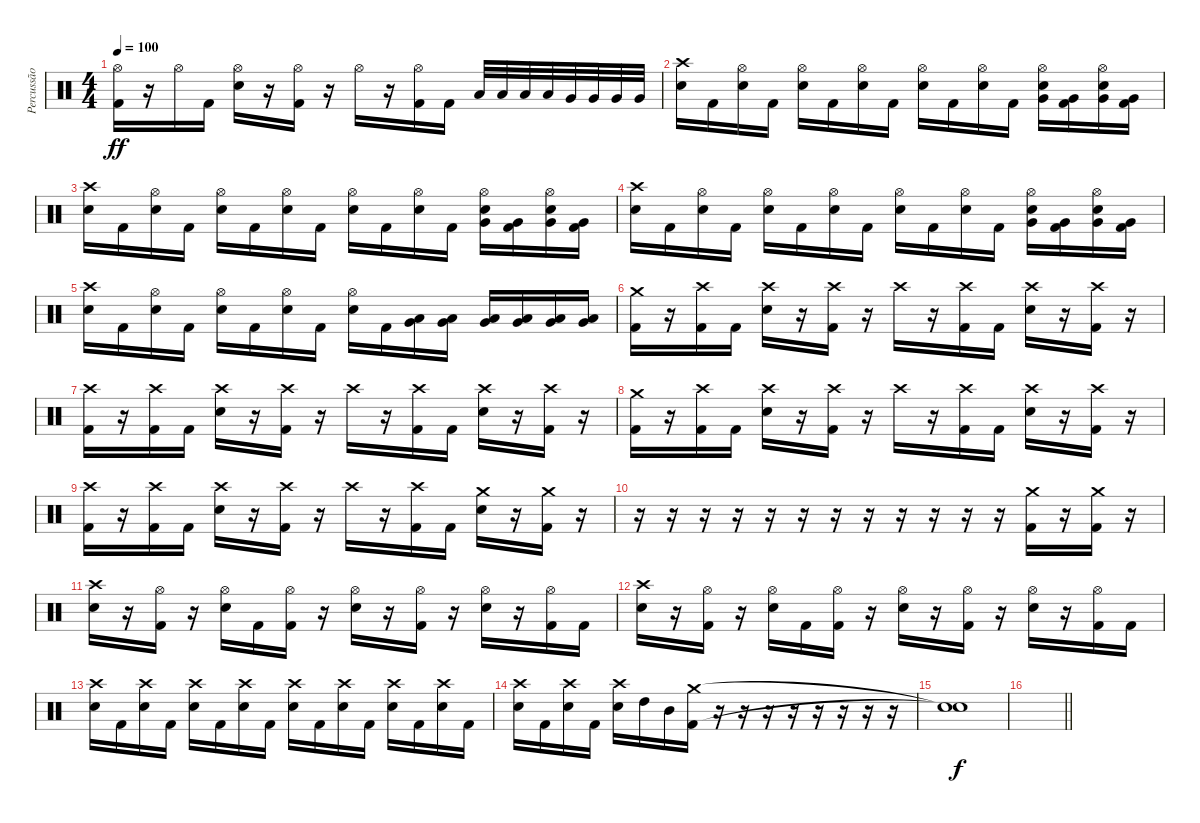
\track ("Percussão" "Percussão") {instrument percussion}
\staff {score}
\articulation defaults
\ts (4 4)
\tempo 100
\clef neutral
\ks c
("Hi-Hat (open)" "Kick (hit) 2").16{dy ff} r.16 "Hi-Hat (open)".16 "Kick (hit) 2".16 ("Hi-Hat (open)" "Electric Snare (hit)").16 r.16 ("Hi-Hat (open)" "Kick (hit) 2").16 r.16 "Hi-Hat (open)".16 r.16 ("Hi-Hat (open)" "Kick (hit) 2").16 "Kick (hit) 2".16 "Low Tom (hit)".32 "Low Tom (hit)".32 "Low Tom (hit)".32 "Low Tom (hit)".32 "Very Low Tom (hit)".32 "Very Low Tom (hit)".32 "Very Low Tom (hit)".32 "Very Low Tom (hit)".32 |
("Crash high (hit)" "Electric Snare (hit)").16 "Kick (hit) 2".16 ("Hi-Hat (open)" "Electric Snare (hit)").16 "Kick (hit) 2".16 ("Hi-Hat (open)" "Electric Snare (hit)").16 "Kick (hit) 2".16 ("Hi-Hat (open)" "Electric Snare (hit)").16 "Kick (hit) 2".16 ("Hi-Hat (open)" "Electric Snare (hit)").16 "Kick (hit) 2".16 ("Hi-Hat (open)" "Electric Snare (hit)").16 "Kick (hit) 2".16 ("Hi-Hat (open)" "Electric Snare (hit)" "Very Low Tom (hit)").16 ("Kick (hit) 2" "Very Low Tom (hit)").16 ("Hi-Hat (open)" "Electric Snare (hit)" "Very Low Tom (hit)").16 ("Kick (hit) 2" "Very Low Tom (hit)").16 |
("Crash high (hit)" "Electric Snare (hit)").16 "Kick (hit) 2".16 ("Hi-Hat (open)" "Electric Snare (hit)").16 "Kick (hit) 2".16 ("Hi-Hat (open)" "Electric Snare (hit)").16 "Kick (hit) 2".16 ("Hi-Hat (open)" "Electric Snare (hit)").16 "Kick (hit) 2".16 ("Hi-Hat (open)" "Electric Snare (hit)").16 "Kick (hit) 2".16 ("Hi-Hat (open)" "Electric Snare (hit)").16 "Kick (hit) 2".16 ("Hi-Hat (open)" "Electric Snare (hit)" "Very Low Tom (hit)").16 ("Kick (hit) 2" "Very Low Tom (hit)").16 ("Hi-Hat (open)" "Electric Snare (hit)" "Very Low Tom (hit)").16 ("Kick (hit) 2" "Very Low Tom (hit)").16 |
("Crash high (hit)" "Electric Snare (hit)").16 "Kick (hit) 2".16 ("Hi-Hat (open)" "Electric Snare (hit)").16 "Kick (hit) 2".16 ("Hi-Hat (open)" "Electric Snare (hit)").16 "Kick (hit) 2".16 ("Hi-Hat (open)" "Electric Snare (hit)").16 "Kick (hit) 2".16 ("Hi-Hat (open)" "Electric Snare (hit)").16 "Kick (hit) 2".16 ("Hi-Hat (open)" "Electric Snare (hit)").16 "Kick (hit) 2".16 ("Hi-Hat (open)" "Electric Snare (hit)" "Very Low Tom (hit)").16 ("Kick (hit) 2" "Very Low Tom (hit)").16 ("Hi-Hat (open)" "Electric Snare (hit)" "Very Low Tom (hit)").16 ("Kick (hit) 2" "Very Low Tom (hit)").16 |
("Crash high (hit)" "Electric Snare (hit)").16 "Kick (hit) 2".16 ("Hi-Hat (open)" "Electric Snare (hit)").16 "Kick (hit) 2".16 ("Hi-Hat (open)" "Electric Snare (hit)").16 "Kick (hit) 2".16 ("Hi-Hat (open)" "Electric Snare (hit)").16 "Kick (hit) 2".16 ("Hi-Hat (open)" "Electric Snare (hit)").16 "Kick (hit) 2".16 ("Very Low Tom (hit)" "Low Tom (hit)").16 ("Very Low Tom (hit)" "Low Tom (hit)").16 ("Low Tom (hit)" "Very Low Tom (hit)").16 ("Low Tom (hit)" "Very Low Tom (hit)").16 ("Low Tom (hit)" "Very Low Tom (hit)").16 ("Low Tom (hit)" "Very Low Tom (hit)").16 |
("Crash medium (hit)" "Kick (hit) 2").16 r.16 ("Crash high (hit)" "Kick (hit) 2").16 "Kick (hit) 2".16 ("Crash high (hit)" "Electric Snare (hit)").16 r.16 ("Crash high (hit)" "Kick (hit) 2").16 r.16 "Crash high (hit)".16 r.16 ("Crash high (hit)" "Kick (hit) 2").16 "Kick (hit) 2".16 ("Crash high (hit)" "Electric Snare (hit)").16 r.16 ("Crash high (hit)" "Kick (hit) 2").16 r.16 |
("Crash high (hit)" "Kick (hit) 2").16 r.16 ("Crash high (hit)" "Kick (hit) 2").16 "Kick (hit) 2".16 ("Crash high (hit)" "Electric Snare (hit)").16 r.16 ("Crash high (hit)" "Kick (hit) 2").16 r.16 "Crash high (hit)".16 r.16 ("Crash high (hit)" "Kick (hit) 2").16 "Kick (hit) 2".16 ("Crash high (hit)" "Electric Snare (hit)").16 r.16 ("Crash high (hit)" "Kick (hit) 2").16 r.16 |
("Crash medium (hit)" "Kick (hit) 2").16 r.16 ("Crash high (hit)" "Kick (hit) 2").16 "Kick (hit) 2".16 ("Crash high (hit)" "Electric Snare (hit)").16 r.16 ("Crash high (hit)" "Kick (hit) 2").16 r.16 "Crash high (hit)".16 r.16 ("Crash high (hit)" "Kick (hit) 2").16 "Kick (hit) 2".16 ("Crash high (hit)" "Electric Snare (hit)").16 r.16 ("Crash high (hit)" "Kick (hit) 2").16 r.16 |
("Crash high (hit)" "Kick (hit) 2").16 r.16 ("Crash high (hit)" "Kick (hit) 2").16 "Kick (hit) 2".16 ("Crash high (hit)" "Electric Snare (hit)").16 r.16 ("Crash high (hit)" "Kick (hit) 2").16 r.16 "Crash high (hit)".16 r.16 ("Crash high (hit)" "Kick (hit) 2").16 "Kick (hit) 2".16 ("Crash medium (hit)" "Electric Snare (hit)").16 r.16 ("Crash medium (hit)" "Kick (hit) 2").16 r.16 |
r.16 r.16 r.16 r.16 r.16 r.16 r.16 r.16 r.16 r.16 r.16 r.16 ("Crash medium (hit)" "Kick (hit) 2").16 r.16 ("Crash medium (hit)" "Kick (hit) 2").16 r.16 |
("Crash high (hit)" "Electric Snare (hit)").16 r.16 ("Hi-Hat (open)" "Kick (hit) 2").16 r.16 ("Hi-Hat (open)" "Electric Snare (hit)").16 "Kick (hit) 2".16 ("Hi-Hat (open)" "Kick (hit) 2").16 r.16 ("Hi-Hat (open)" "Electric Snare (hit)").16 r.16 ("Hi-Hat (open)" "Kick (hit) 2").16 r.16 ("Hi-Hat (open)" "Electric Snare (hit)").16 r.16 ("Hi-Hat (open)" "Kick (hit) 2").16 "Kick (hit) 2".16 |
("Crash high (hit)" "Electric Snare (hit)").16 r.16 ("Hi-Hat (open)" "Kick (hit) 2").16 r.16 ("Hi-Hat (open)" "Electric Snare (hit)").16 "Kick (hit) 2".16 ("Hi-Hat (open)" "Kick (hit) 2").16 r.16 ("Hi-Hat (open)" "Electric Snare (hit)").16 r.16 ("Hi-Hat (open)" "Kick (hit) 2").16 r.16 ("Hi-Hat (open)" "Electric Snare (hit)").16 r.16 ("Hi-Hat (open)" "Kick (hit) 2").16 "Kick (hit) 2".16 |
("Crash high (hit)" "Electric Snare (hit)").16 "Kick (hit) 2".16 ("Crash high (hit)" "Electric Snare (hit)").16 "Kick (hit) 2".16 ("Crash high (hit)" "Electric Snare (hit)").16 "Kick (hit) 2".16 ("Crash high (hit)" "Electric Snare (hit)").16 "Kick (hit) 2".16 ("Crash high (hit)" "Electric Snare (hit)").16 "Kick (hit) 2".16 ("Crash high (hit)" "Electric Snare (hit)").16 "Kick (hit) 2".16 ("Crash high (hit)" "Electric Snare (hit)").16 "Kick (hit) 2".16 ("Crash high (hit)" "Electric Snare (hit)").16 "Kick (hit) 2".16 |
("Crash high (hit)" "Electric Snare (hit)").16 "Kick (hit) 2".16 ("Crash high (hit)" "Electric Snare (hit)").16 "Kick (hit) 2".16 ("Crash high (hit)" "Electric Snare (hit)").16 "High Tom (hit)".16 "Mid Tom (hit)".16 ("Crash medium (hit)" "Kick (hit) 2").16 r.16 r.16 r.16 r.16 r.16 r.16 r.16 r.16 |
("Snare (hit)"{t} "Snare (hit)"{t}).1{dy f} |
\barLineRight lightlight
